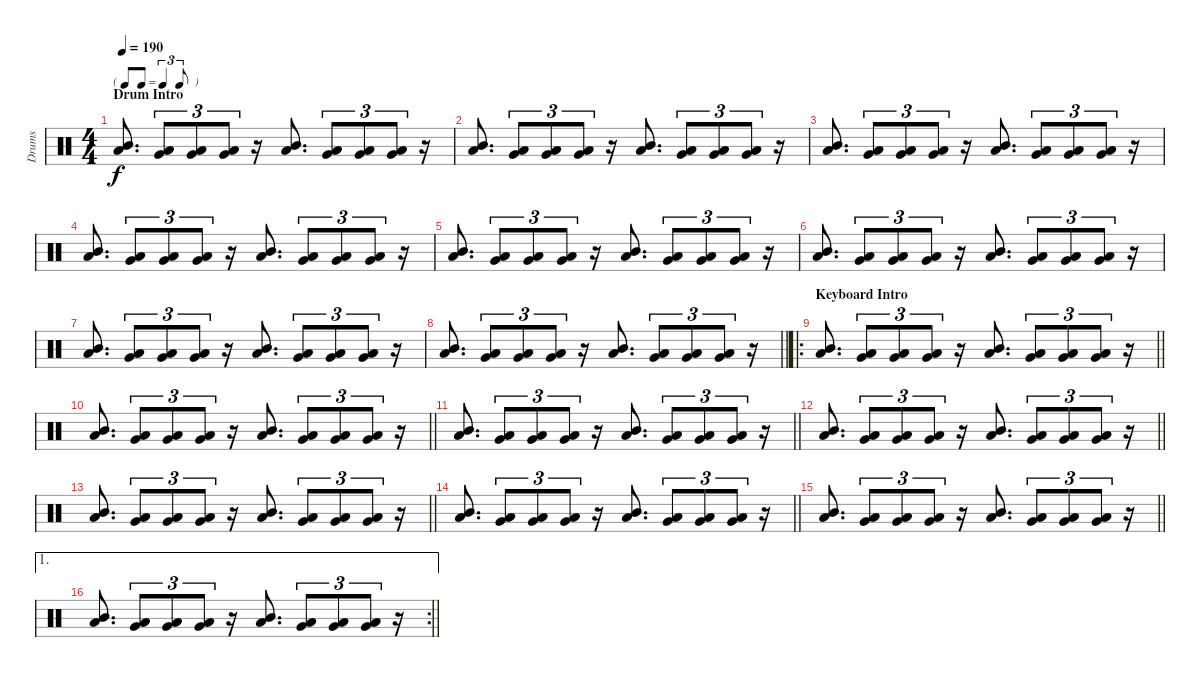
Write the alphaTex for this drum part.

\track ("Drums" "Drums") {instrument percussion}
\staff {score}
\articulation defaults
\ts (4 4)
\tf triplet8th
\section ("" "Drum Intro")
\tempo 190
\clef neutral
\ks c
("Mid Tom (hit)" "Low Floor Tom (hit)").8{d dy f} ("Very Low Tom (hit)" "Low Floor Tom (hit)").8{tu (3 2)} ("Very Low Tom (hit)" "Low Floor Tom (hit)").8{tu (3 2)} ("Very Low Tom (hit)" "Low Floor Tom (hit)").8{tu (3 2)} r.16 ("Mid Tom (hit)" "Low Floor Tom (hit)").8{d} ("Very Low Tom (hit)" "Low Floor Tom (hit)").8{tu (3 2)} ("Very Low Tom (hit)" "Low Floor Tom (hit)").8{tu (3 2)} ("Very Low Tom (hit)" "Low Floor Tom (hit)").8{tu (3 2)} r.16 |
("Mid Tom (hit)" "Low Floor Tom (hit)").8{d} ("Very Low Tom (hit)" "Low Floor Tom (hit)").8{tu (3 2)} ("Very Low Tom (hit)" "Low Floor Tom (hit)").8{tu (3 2)} ("Very Low Tom (hit)" "Low Floor Tom (hit)").8{tu (3 2)} r.16 ("Mid Tom (hit)" "Low Floor Tom (hit)").8{d} ("Very Low Tom (hit)" "Low Floor Tom (hit)").8{tu (3 2)} ("Very Low Tom (hit)" "Low Floor Tom (hit)").8{tu (3 2)} ("Very Low Tom (hit)" "Low Floor Tom (hit)").8{tu (3 2)} r.16 |
("Mid Tom (hit)" "Low Floor Tom (hit)").8{d} ("Very Low Tom (hit)" "Low Floor Tom (hit)").8{tu (3 2)} ("Very Low Tom (hit)" "Low Floor Tom (hit)").8{tu (3 2)} ("Very Low Tom (hit)" "Low Floor Tom (hit)").8{tu (3 2)} r.16 ("Mid Tom (hit)" "Low Floor Tom (hit)").8{d} ("Very Low Tom (hit)" "Low Floor Tom (hit)").8{tu (3 2)} ("Very Low Tom (hit)" "Low Floor Tom (hit)").8{tu (3 2)} ("Very Low Tom (hit)" "Low Floor Tom (hit)").8{tu (3 2)} r.16 |
("Mid Tom (hit)" "Low Floor Tom (hit)").8{d} ("Very Low Tom (hit)" "Low Floor Tom (hit)").8{tu (3 2)} ("Very Low Tom (hit)" "Low Floor Tom (hit)").8{tu (3 2)} ("Very Low Tom (hit)" "Low Floor Tom (hit)").8{tu (3 2)} r.16 ("Mid Tom (hit)" "Low Floor Tom (hit)").8{d} ("Very Low Tom (hit)" "Low Floor Tom (hit)").8{tu (3 2)} ("Very Low Tom (hit)" "Low Floor Tom (hit)").8{tu (3 2)} ("Very Low Tom (hit)" "Low Floor Tom (hit)").8{tu (3 2)} r.16 |
("Mid Tom (hit)" "Low Floor Tom (hit)").8{d} ("Very Low Tom (hit)" "Low Floor Tom (hit)").8{tu (3 2)} ("Very Low Tom (hit)" "Low Floor Tom (hit)").8{tu (3 2)} ("Very Low Tom (hit)" "Low Floor Tom (hit)").8{tu (3 2)} r.16 ("Mid Tom (hit)" "Low Floor Tom (hit)").8{d} ("Very Low Tom (hit)" "Low Floor Tom (hit)").8{tu (3 2)} ("Very Low Tom (hit)" "Low Floor Tom (hit)").8{tu (3 2)} ("Very Low Tom (hit)" "Low Floor Tom (hit)").8{tu (3 2)} r.16 |
("Mid Tom (hit)" "Low Floor Tom (hit)").8{d} ("Very Low Tom (hit)" "Low Floor Tom (hit)").8{tu (3 2)} ("Very Low Tom (hit)" "Low Floor Tom (hit)").8{tu (3 2)} ("Very Low Tom (hit)" "Low Floor Tom (hit)").8{tu (3 2)} r.16 ("Mid Tom (hit)" "Low Floor Tom (hit)").8{d} ("Very Low Tom (hit)" "Low Floor Tom (hit)").8{tu (3 2)} ("Very Low Tom (hit)" "Low Floor Tom (hit)").8{tu (3 2)} ("Very Low Tom (hit)" "Low Floor Tom (hit)").8{tu (3 2)} r.16 |
("Mid Tom (hit)" "Low Floor Tom (hit)").8{d} ("Very Low Tom (hit)" "Low Floor Tom (hit)").8{tu (3 2)} ("Very Low Tom (hit)" "Low Floor Tom (hit)").8{tu (3 2)} ("Very Low Tom (hit)" "Low Floor Tom (hit)").8{tu (3 2)} r.16 ("Mid Tom (hit)" "Low Floor Tom (hit)").8{d} ("Very Low Tom (hit)" "Low Floor Tom (hit)").8{tu (3 2)} ("Very Low Tom (hit)" "Low Floor Tom (hit)").8{tu (3 2)} ("Very Low Tom (hit)" "Low Floor Tom (hit)").8{tu (3 2)} r.16 |
\barLineRight lightlight
("Mid Tom (hit)" "Low Floor Tom (hit)").8{d} ("Very Low Tom (hit)" "Low Floor Tom (hit)").8{tu (3 2)} ("Very Low Tom (hit)" "Low Floor Tom (hit)").8{tu (3 2)} ("Very Low Tom (hit)" "Low Floor Tom (hit)").8{tu (3 2)} r.16 ("Mid Tom (hit)" "Low Floor Tom (hit)").8{d} ("Very Low Tom (hit)" "Low Floor Tom (hit)").8{tu (3 2)} ("Very Low Tom (hit)" "Low Floor Tom (hit)").8{tu (3 2)} ("Very Low Tom (hit)" "Low Floor Tom (hit)").8{tu (3 2)} r.16 |
\ro
\section ("" "Keyboard Intro")
\barLineRight lightlight
("Mid Tom (hit)" "Low Floor Tom (hit)").8{d} ("Very Low Tom (hit)" "Low Floor Tom (hit)").8{tu (3 2)} ("Very Low Tom (hit)" "Low Floor Tom (hit)").8{tu (3 2)} ("Very Low Tom (hit)" "Low Floor Tom (hit)").8{tu (3 2)} r.16 ("Mid Tom (hit)" "Low Floor Tom (hit)").8{d} ("Very Low Tom (hit)" "Low Floor Tom (hit)").8{tu (3 2)} ("Very Low Tom (hit)" "Low Floor Tom (hit)").8{tu (3 2)} ("Very Low Tom (hit)" "Low Floor Tom (hit)").8{tu (3 2)} r.16 |
\barLineRight lightlight
("Mid Tom (hit)" "Low Floor Tom (hit)").8{d} ("Very Low Tom (hit)" "Low Floor Tom (hit)").8{tu (3 2)} ("Very Low Tom (hit)" "Low Floor Tom (hit)").8{tu (3 2)} ("Very Low Tom (hit)" "Low Floor Tom (hit)").8{tu (3 2)} r.16 ("Mid Tom (hit)" "Low Floor Tom (hit)").8{d} ("Very Low Tom (hit)" "Low Floor Tom (hit)").8{tu (3 2)} ("Very Low Tom (hit)" "Low Floor Tom (hit)").8{tu (3 2)} ("Very Low Tom (hit)" "Low Floor Tom (hit)").8{tu (3 2)} r.16 |
\barLineRight lightlight
("Mid Tom (hit)" "Low Floor Tom (hit)").8{d} ("Very Low Tom (hit)" "Low Floor Tom (hit)").8{tu (3 2)} ("Very Low Tom (hit)" "Low Floor Tom (hit)").8{tu (3 2)} ("Very Low Tom (hit)" "Low Floor Tom (hit)").8{tu (3 2)} r.16 ("Mid Tom (hit)" "Low Floor Tom (hit)").8{d} ("Very Low Tom (hit)" "Low Floor Tom (hit)").8{tu (3 2)} ("Very Low Tom (hit)" "Low Floor Tom (hit)").8{tu (3 2)} ("Very Low Tom (hit)" "Low Floor Tom (hit)").8{tu (3 2)} r.16 |
\barLineRight lightlight
("Mid Tom (hit)" "Low Floor Tom (hit)").8{d} ("Very Low Tom (hit)" "Low Floor Tom (hit)").8{tu (3 2)} ("Very Low Tom (hit)" "Low Floor Tom (hit)").8{tu (3 2)} ("Very Low Tom (hit)" "Low Floor Tom (hit)").8{tu (3 2)} r.16 ("Mid Tom (hit)" "Low Floor Tom (hit)").8{d} ("Very Low Tom (hit)" "Low Floor Tom (hit)").8{tu (3 2)} ("Very Low Tom (hit)" "Low Floor Tom (hit)").8{tu (3 2)} ("Very Low Tom (hit)" "Low Floor Tom (hit)").8{tu (3 2)} r.16 |
\barLineRight lightlight
("Mid Tom (hit)" "Low Floor Tom (hit)").8{d} ("Very Low Tom (hit)" "Low Floor Tom (hit)").8{tu (3 2)} ("Very Low Tom (hit)" "Low Floor Tom (hit)").8{tu (3 2)} ("Very Low Tom (hit)" "Low Floor Tom (hit)").8{tu (3 2)} r.16 ("Mid Tom (hit)" "Low Floor Tom (hit)").8{d} ("Very Low Tom (hit)" "Low Floor Tom (hit)").8{tu (3 2)} ("Very Low Tom (hit)" "Low Floor Tom (hit)").8{tu (3 2)} ("Very Low Tom (hit)" "Low Floor Tom (hit)").8{tu (3 2)} r.16 |
\barLineRight lightlight
("Mid Tom (hit)" "Low Floor Tom (hit)").8{d} ("Very Low Tom (hit)" "Low Floor Tom (hit)").8{tu (3 2)} ("Very Low Tom (hit)" "Low Floor Tom (hit)").8{tu (3 2)} ("Very Low Tom (hit)" "Low Floor Tom (hit)").8{tu (3 2)} r.16 ("Mid Tom (hit)" "Low Floor Tom (hit)").8{d} ("Very Low Tom (hit)" "Low Floor Tom (hit)").8{tu (3 2)} ("Very Low Tom (hit)" "Low Floor Tom (hit)").8{tu (3 2)} ("Very Low Tom (hit)" "Low Floor Tom (hit)").8{tu (3 2)} r.16 |
\barLineRight lightlight
("Mid Tom (hit)" "Low Floor Tom (hit)").8{d} ("Very Low Tom (hit)" "Low Floor Tom (hit)").8{tu (3 2)} ("Very Low Tom (hit)" "Low Floor Tom (hit)").8{tu (3 2)} ("Very Low Tom (hit)" "Low Floor Tom (hit)").8{tu (3 2)} r.16 ("Mid Tom (hit)" "Low Floor Tom (hit)").8{d} ("Very Low Tom (hit)" "Low Floor Tom (hit)").8{tu (3 2)} ("Very Low Tom (hit)" "Low Floor Tom (hit)").8{tu (3 2)} ("Very Low Tom (hit)" "Low Floor Tom (hit)").8{tu (3 2)} r.16 |
\ae 1
\rc 2
\barLineRight lightlight
("Mid Tom (hit)" "Low Floor Tom (hit)").8{d} ("Very Low Tom (hit)" "Low Floor Tom (hit)").8{tu (3 2)} ("Very Low Tom (hit)" "Low Floor Tom (hit)").8{tu (3 2)} ("Very Low Tom (hit)" "Low Floor Tom (hit)").8{tu (3 2)} r.16 ("Mid Tom (hit)" "Low Floor Tom (hit)").8{d} ("Very Low Tom (hit)" "Low Floor Tom (hit)").8{tu (3 2)} ("Very Low Tom (hit)" "Low Floor Tom (hit)").8{tu (3 2)} ("Very Low Tom (hit)" "Low Floor Tom (hit)").8{tu (3 2)} r.16
